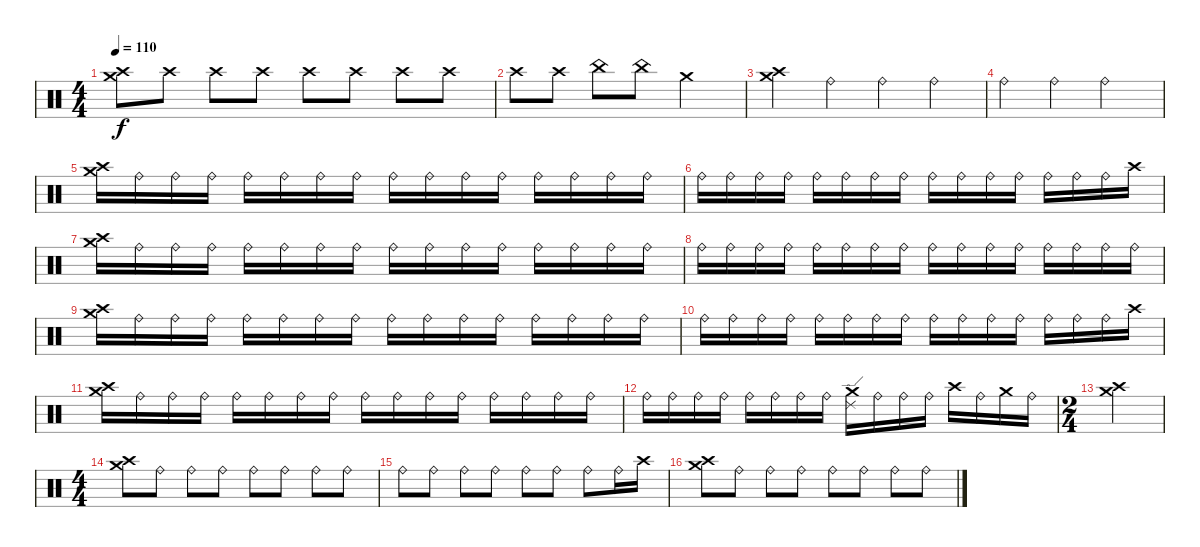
\track "" {instrument percussion}
\staff {score}
\articulation defaults
\ts (4 4)
\tempo 110
\clef neutral
\ks c
("Crash medium (hit)" "Crash high (hit)").8{dy f} "Crash high (hit)".8 "Crash high (hit)".8 "Crash high (hit)".8 "Crash high (hit)".8 "Crash high (hit)".8 "Crash high (hit)".8 "Crash high (hit)".8 |
"Crash high (hit)".8 "Crash high (hit)".8 "China (hit)".8 "China (hit)".8 "Crash medium (hit)".2 |
("Crash medium (hit)" "Crash high (hit)").4 "Ride (bell)".4 "Ride (bell)".4 "Ride (bell)".4 |
"Ride (bell)".4 "Ride (bell)".4 "Ride (bell)".2 |
("Crash medium (hit)" "Crash high (hit)").16 "Ride (bell)".16 "Ride (bell)".16 "Ride (bell)".16 "Ride (bell)".16 "Ride (bell)".16 "Ride (bell)".16 "Ride (bell)".16 "Ride (bell)".16 "Ride (bell)".16 "Ride (bell)".16 "Ride (bell)".16 "Ride (bell)".16 "Ride (bell)".16 "Ride (bell)".16 "Ride (bell)".16 |
"Ride (bell)".16 "Ride (bell)".16 "Ride (bell)".16 "Ride (bell)".16 "Ride (bell)".16 "Ride (bell)".16 "Ride (bell)".16 "Ride (bell)".16 "Ride (bell)".16 "Ride (bell)".16 "Ride (bell)".16 "Ride (bell)".16 "Ride (bell)".16 "Ride (bell)".16 "Ride (bell)".16 "Crash high (hit)".16 |
("Crash medium (hit)" "Crash high (hit)").16 "Ride (bell)".16 "Ride (bell)".16 "Ride (bell)".16 "Ride (bell)".16 "Ride (bell)".16 "Ride (bell)".16 "Ride (bell)".16 "Ride (bell)".16 "Ride (bell)".16 "Ride (bell)".16 "Ride (bell)".16 "Ride (bell)".16 "Ride (bell)".16 "Ride (bell)".16 "Ride (bell)".16 |
"Ride (bell)".16 "Ride (bell)".16 "Ride (bell)".16 "Ride (bell)".16 "Ride (bell)".16 "Ride (bell)".16 "Ride (bell)".16 "Ride (bell)".16 "Ride (bell)".16 "Ride (bell)".16 "Ride (bell)".16 "Ride (bell)".16 "Ride (bell)".16 "Ride (bell)".16 "Ride (bell)".16 "Ride (bell)".16 |
("Crash medium (hit)" "Crash high (hit)").16 "Ride (bell)".16 "Ride (bell)".16 "Ride (bell)".16 "Ride (bell)".16 "Ride (bell)".16 "Ride (bell)".16 "Ride (bell)".16 "Ride (bell)".16 "Ride (bell)".16 "Ride (bell)".16 "Ride (bell)".16 "Ride (bell)".16 "Ride (bell)".16 "Ride (bell)".16 "Ride (bell)".16 |
"Ride (bell)".16 "Ride (bell)".16 "Ride (bell)".16 "Ride (bell)".16 "Ride (bell)".16 "Ride (bell)".16 "Ride (bell)".16 "Ride (bell)".16 "Ride (bell)".16 "Ride (bell)".16 "Ride (bell)".16 "Ride (bell)".16 "Ride (bell)".16 "Ride (bell)".16 "Ride (bell)".16 "Crash high (hit)".16 |
("Crash medium (hit)" "Crash high (hit)").16 "Ride (bell)".16 "Ride (bell)".16 "Ride (bell)".16 "Ride (bell)".16 "Ride (bell)".16 "Ride (bell)".16 "Ride (bell)".16 "Ride (bell)".16 "Ride (bell)".16 "Ride (bell)".16 "Ride (bell)".16 "Ride (bell)".16 "Ride (bell)".16 "Ride (bell)".16 "Ride (bell)".16 |
"Ride (bell)".16 "Ride (bell)".16 "Ride (bell)".16 "Ride (bell)".16 "Ride (bell)".16 "Ride (bell)".16 "Ride (bell)".16 "Ride (bell)".16 ("Crash medium (hit)" "Ride (edge) 2").16 "Ride (bell)".16 "Ride (bell)".16 "Ride (bell)".16 "Crash high (hit)".16 "Ride (bell)".16 "Crash medium (hit)".16 "Ride (bell)".16 |
\ts (2 4)
("Crash medium (hit)" "Crash high (hit)").2 |
\ts (4 4)
("Crash medium (hit)" "Crash high (hit)").8 "Ride (bell)".8 "Ride (bell)".8 "Ride (bell)".8 "Ride (bell)".8 "Ride (bell)".8 "Ride (bell)".8 "Ride (bell)".8 |
"Ride (bell)".8 "Ride (bell)".8 "Ride (bell)".8 "Ride (bell)".8 "Ride (bell)".8 "Ride (bell)".8 "Ride (bell)".8 "Ride (bell)".16 "Crash high (hit)".16 |
("Crash medium (hit)" "Crash high (hit)").8 "Ride (bell)".8 "Ride (bell)".8 "Ride (bell)".8 "Ride (bell)".8 "Ride (bell)".8 "Ride (bell)".8 "Ride (bell)".8
